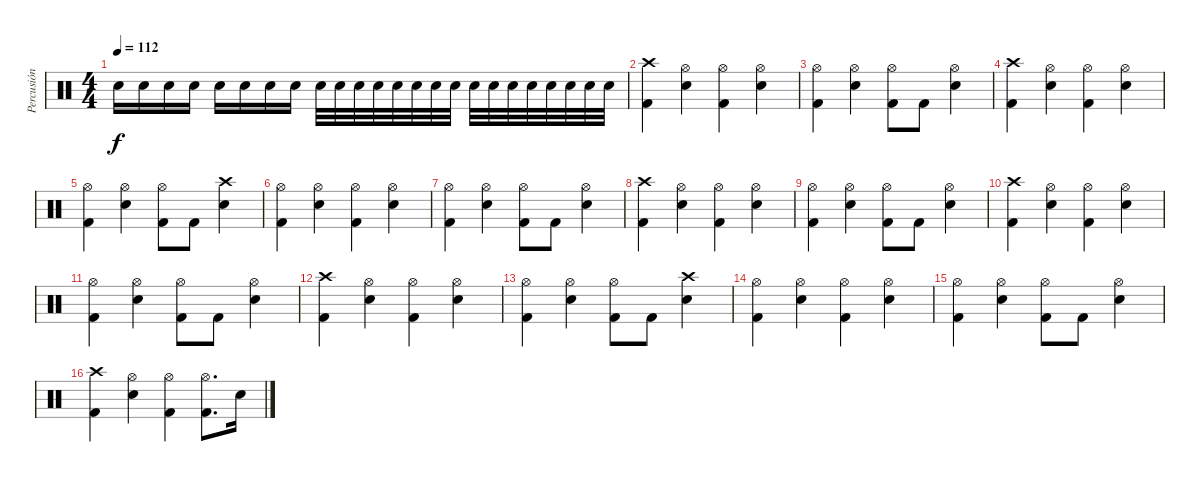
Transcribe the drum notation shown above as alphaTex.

\track ("Percusión" "Percusión") {instrument percussion}
\staff {score}
\articulation defaults
\ts (4 4)
\tempo 112
\clef neutral
\ks c "Snare (hit) 2".16{dy f} "Snare (hit) 2".16 "Snare (hit) 2".16 "Snare (hit) 2".16 "Snare (hit) 2".16 "Snare (hit) 2".16 "Snare (hit) 2".16 "Snare (hit) 2".16 "Snare (hit) 2".32 "Snare (hit) 2".32 "Snare (hit) 2".32 "Snare (hit) 2".32 "Snare (hit) 2".32 "Snare (hit) 2".32 "Snare (hit) 2".32 "Snare (hit) 2".32 "Snare (hit) 2".32 "Snare (hit) 2".32 "Snare (hit) 2".32 "Snare (hit) 2".32 "Snare (hit) 2".32 "Snare (hit) 2".32 "Snare (hit) 2".32 "Snare (hit) 2".32
|
("Crash high (hit)" "Kick (hit) 2").4 ("Hi-Hat (open)" "Snare (hit) 2").4 ("Hi-Hat (open)" "Kick (hit) 2").4 ("Hi-Hat (open)" "Snare (hit) 2").4 |
("Hi-Hat (open)" "Kick (hit) 2").4 ("Hi-Hat (open)" "Snare (hit) 2").4 ("Hi-Hat (open)" "Kick (hit) 2").8 "Kick (hit) 2".8 ("Hi-Hat (open)" "Snare (hit) 2").4 |
("Crash high (hit)" "Kick (hit) 2").4 ("Hi-Hat (open)" "Snare (hit) 2").4 ("Hi-Hat (open)" "Kick (hit) 2").4 ("Hi-Hat (open)" "Snare (hit) 2").4 |
("Hi-Hat (open)" "Kick (hit) 2").4 ("Hi-Hat (open)" "Snare (hit) 2").4 ("Hi-Hat (open)" "Kick (hit) 2").8 "Kick (hit) 2".8 ("Crash high (hit)" "Snare (hit) 2").4 |
("Hi-Hat (open)" "Kick (hit) 2").4 ("Hi-Hat (open)" "Snare (hit) 2").4 ("Hi-Hat (open)" "Kick (hit) 2").4 ("Hi-Hat (open)" "Snare (hit) 2").4 |
("Hi-Hat (open)" "Kick (hit) 2").4 ("Hi-Hat (open)" "Snare (hit) 2").4 ("Hi-Hat (open)" "Kick (hit) 2").8 "Kick (hit) 2".8 ("Hi-Hat (open)" "Snare (hit) 2").4 |
("Crash high (hit)" "Kick (hit) 2").4 ("Hi-Hat (open)" "Snare (hit) 2").4 ("Hi-Hat (open)" "Kick (hit) 2").4 ("Hi-Hat (open)" "Snare (hit) 2").4 |
("Hi-Hat (open)" "Kick (hit) 2").4 ("Hi-Hat (open)" "Snare (hit) 2").4 ("Hi-Hat (open)" "Kick (hit) 2").8 "Kick (hit) 2".8 ("Hi-Hat (open)" "Snare (hit) 2").4 |
("Crash high (hit)" "Kick (hit) 2").4 ("Hi-Hat (open)" "Snare (hit) 2").4 ("Hi-Hat (open)" "Kick (hit) 2").4 ("Hi-Hat (open)" "Snare (hit) 2").4 |
("Hi-Hat (open)" "Kick (hit) 2").4 ("Hi-Hat (open)" "Snare (hit) 2").4 ("Hi-Hat (open)" "Kick (hit) 2").8 "Kick (hit) 2".8 ("Hi-Hat (open)" "Snare (hit) 2").4 |
("Crash high (hit)" "Kick (hit) 2").4 ("Hi-Hat (open)" "Snare (hit) 2").4 ("Hi-Hat (open)" "Kick (hit) 2").4 ("Hi-Hat (open)" "Snare (hit) 2").4 |
("Hi-Hat (open)" "Kick (hit) 2").4 ("Hi-Hat (open)" "Snare (hit) 2").4 ("Hi-Hat (open)" "Kick (hit) 2").8 "Kick (hit) 2".8 ("Crash high (hit)" "Snare (hit) 2").4 |
("Hi-Hat (open)" "Kick (hit) 2").4 ("Hi-Hat (open)" "Snare (hit) 2").4 ("Hi-Hat (open)" "Kick (hit) 2").4 ("Hi-Hat (open)" "Snare (hit) 2").4 |
("Hi-Hat (open)" "Kick (hit) 2").4 ("Hi-Hat (open)" "Snare (hit) 2").4 ("Hi-Hat (open)" "Kick (hit) 2").8 "Kick (hit) 2".8 ("Hi-Hat (open)" "Snare (hit) 2").4 |
("Crash high (hit)" "Kick (hit) 2").4 ("Hi-Hat (open)" "Snare (hit) 2").4 ("Hi-Hat (open)" "Kick (hit) 2").4 ("Hi-Hat (open)" "Kick (hit) 2").8{d} "Snare (hit) 2".16
